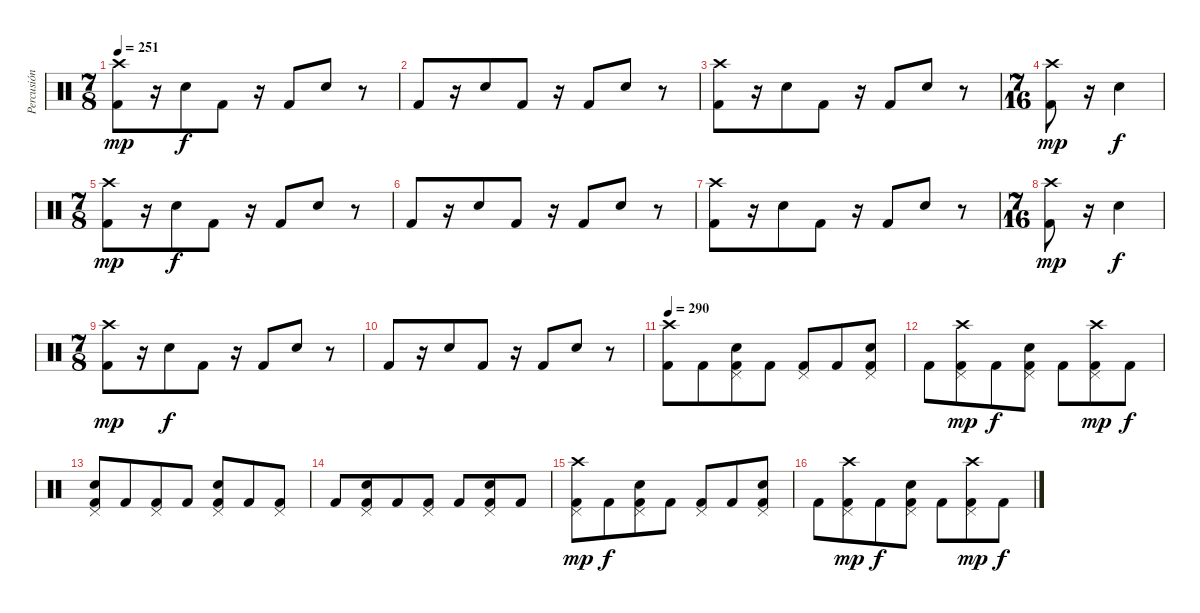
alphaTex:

\track ("Percusión" "Percusión") {instrument percussion}
\staff {score}
\articulation defaults
\ts (7 8)
\tempo 251
\clef neutral
\ks c
("Crash high (hit)" "Kick (hit) 2").8{dy mp} r.16 "Snare (hit) 2".8{dy f} "Kick (hit) 2".8 r.16 "Kick (hit) 2".8 "Snare (hit) 2".8 r.8 |
"Kick (hit) 2".8 r.16 "Snare (hit) 2".8 "Kick (hit) 2".8 r.16 "Kick (hit) 2".8 "Snare (hit) 2".8 r.8 |
("Crash high (hit)" "Kick (hit) 2").8 r.16 "Snare (hit) 2".8 "Kick (hit) 2".8 r.16 "Kick (hit) 2".8 "Snare (hit) 2".8 r.8 |
\ts (7 16)
("Crash high (hit)" "Kick (hit) 2").8{dy mp} r.16 "Snare (hit) 2".4{dy f} |
\ts (7 8)
("Crash high (hit)" "Kick (hit) 2").8{dy mp} r.16 "Snare (hit) 2".8{dy f} "Kick (hit) 2".8 r.16 "Kick (hit) 2".8 "Snare (hit) 2".8 r.8 |
"Kick (hit) 2".8 r.16 "Snare (hit) 2".8 "Kick (hit) 2".8 r.16 "Kick (hit) 2".8 "Snare (hit) 2".8 r.8 |
("Crash high (hit)" "Kick (hit) 2").8 r.16 "Snare (hit) 2".8 "Kick (hit) 2".8 r.16 "Kick (hit) 2".8 "Snare (hit) 2".8 r.8 |
\ts (7 16)
("Crash high (hit)" "Kick (hit) 2").8{dy mp} r.16 "Snare (hit) 2".4{dy f} |
\ts (7 8)
("Crash high (hit)" "Kick (hit) 2").8{dy mp} r.16 "Snare (hit) 2".8{dy f} "Kick (hit) 2".8 r.16 "Kick (hit) 2".8 "Snare (hit) 2".8 r.8 |
"Kick (hit) 2".8 r.16 "Snare (hit) 2".8 "Kick (hit) 2".8 r.16 "Kick (hit) 2".8 "Snare (hit) 2".8 r.8 |
\tempo 262
\tempo 290
("Crash high (hit)" "Kick (hit) 2").8 "Kick (hit) 2".8 ("Pedal Hi-Hat (hit)" "Snare (hit) 2" "Kick (hit) 2").8 "Kick (hit) 2".8 ("Pedal Hi-Hat (hit)" "Kick (hit) 2").8 "Kick (hit) 2".8 ("Pedal Hi-Hat (hit)" "Snare (hit) 2" "Kick (hit) 2").8 |
"Kick (hit) 2".8 ("Crash high (hit)" "Pedal Hi-Hat (hit)" "Kick (hit) 2").8{dy mp} "Kick (hit) 2".8{dy f} ("Pedal Hi-Hat (hit)" "Snare (hit) 2" "Kick (hit) 2").8 "Kick (hit) 2".8 ("Crash high (hit)" "Pedal Hi-Hat (hit)" "Kick (hit) 2").8{dy mp} "Kick (hit) 2".8{dy f} |
("Pedal Hi-Hat (hit)" "Snare (hit) 2" "Kick (hit) 2").8 "Kick (hit) 2".8 ("Pedal Hi-Hat (hit)" "Kick (hit) 2").8 "Kick (hit) 2".8 ("Pedal Hi-Hat (hit)" "Snare (hit) 2" "Kick (hit) 2").8 "Kick (hit) 2".8 ("Pedal Hi-Hat (hit)" "Kick (hit) 2").8 |
"Kick (hit) 2".8 ("Pedal Hi-Hat (hit)" "Snare (hit) 2" "Kick (hit) 2").8 "Kick (hit) 2".8 ("Pedal Hi-Hat (hit)" "Kick (hit) 2").8 "Kick (hit) 2".8 ("Pedal Hi-Hat (hit)" "Snare (hit) 2" "Kick (hit) 2").8 "Kick (hit) 2".8 |
("Crash high (hit)" "Pedal Hi-Hat (hit)" "Kick (hit) 2").8{dy mp} "Kick (hit) 2".8{dy f} ("Pedal Hi-Hat (hit)" "Snare (hit) 2" "Kick (hit) 2").8 "Kick (hit) 2".8 ("Pedal Hi-Hat (hit)" "Kick (hit) 2").8 "Kick (hit) 2".8 ("Pedal Hi-Hat (hit)" "Snare (hit) 2" "Kick (hit) 2").8 |
"Kick (hit) 2".8 ("Crash high (hit)" "Pedal Hi-Hat (hit)" "Kick (hit) 2").8{dy mp} "Kick (hit) 2".8{dy f} ("Pedal Hi-Hat (hit)" "Snare (hit) 2" "Kick (hit) 2").8 "Kick (hit) 2".8 ("Crash high (hit)" "Pedal Hi-Hat (hit)" "Kick (hit) 2").8{dy mp} "Kick (hit) 2".8{dy f}
